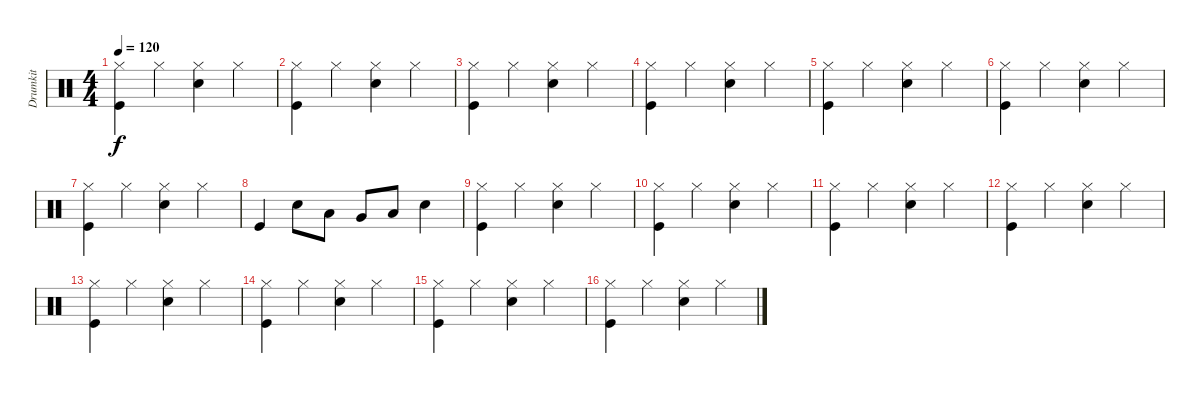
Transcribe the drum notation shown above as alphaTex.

\track ("Drumkit" "Drumkit") {instrument percussion}
\staff {score}
\articulation defaults
\ts (4 4)
\tempo 120
\clef neutral
\ks c
("Kick (hit)" "Hi-Hat (closed)").4{dy f} "Hi-Hat (closed)".4 ("Snare (hit) 2" "Hi-Hat (closed)").4 "Hi-Hat (closed)".4 |
("Kick (hit)" "Hi-Hat (closed)").4 "Hi-Hat (closed)".4 ("Snare (hit) 2" "Hi-Hat (closed)").4 "Hi-Hat (closed)".4 |
("Kick (hit)" "Hi-Hat (closed)").4 "Hi-Hat (closed)".4 ("Snare (hit) 2" "Hi-Hat (closed)").4 "Hi-Hat (closed)".4 |
("Kick (hit)" "Hi-Hat (closed)").4 "Hi-Hat (closed)".4 ("Snare (hit) 2" "Hi-Hat (closed)").4 "Hi-Hat (closed)".4 |
("Kick (hit)" "Hi-Hat (closed)").4 "Hi-Hat (closed)".4 ("Snare (hit) 2" "Hi-Hat (closed)").4 "Hi-Hat (closed)".4 |
("Kick (hit)" "Hi-Hat (closed)").4 "Hi-Hat (closed)".4 ("Snare (hit) 2" "Hi-Hat (closed)").4 "Hi-Hat (closed)".4 |
("Kick (hit)" "Hi-Hat (closed)").4 "Hi-Hat (closed)".4 ("Snare (hit) 2" "Hi-Hat (closed)").4 "Hi-Hat (closed)".4 |
"Kick (hit)".4 "Snare (hit) 2".8 "Low Tom (hit)".8 "Very Low Tom (hit)".8 "Low Floor Tom (hit)".8 "Snare (hit) 2".4 |
("Kick (hit)" "Hi-Hat (closed)").4 "Hi-Hat (closed)".4 ("Snare (hit) 2" "Hi-Hat (closed)").4 "Hi-Hat (closed)".4 |
("Kick (hit)" "Hi-Hat (closed)").4 "Hi-Hat (closed)".4 ("Snare (hit) 2" "Hi-Hat (closed)").4 "Hi-Hat (closed)".4 |
("Kick (hit)" "Hi-Hat (closed)").4 "Hi-Hat (closed)".4 ("Snare (hit) 2" "Hi-Hat (closed)").4 "Hi-Hat (closed)".4 |
("Kick (hit)" "Hi-Hat (closed)").4 "Hi-Hat (closed)".4 ("Snare (hit) 2" "Hi-Hat (closed)").4 "Hi-Hat (closed)".4 |
("Kick (hit)" "Hi-Hat (closed)").4 "Hi-Hat (closed)".4 ("Snare (hit) 2" "Hi-Hat (closed)").4 "Hi-Hat (closed)".4 |
("Kick (hit)" "Hi-Hat (closed)").4 "Hi-Hat (closed)".4 ("Snare (hit) 2" "Hi-Hat (closed)").4 "Hi-Hat (closed)".4 |
("Kick (hit)" "Hi-Hat (closed)").4 "Hi-Hat (closed)".4 ("Snare (hit) 2" "Hi-Hat (closed)").4 "Hi-Hat (closed)".4 |
("Kick (hit)" "Hi-Hat (closed)").4 "Hi-Hat (closed)".4 ("Snare (hit) 2" "Hi-Hat (closed)").4 "Hi-Hat (closed)".4
